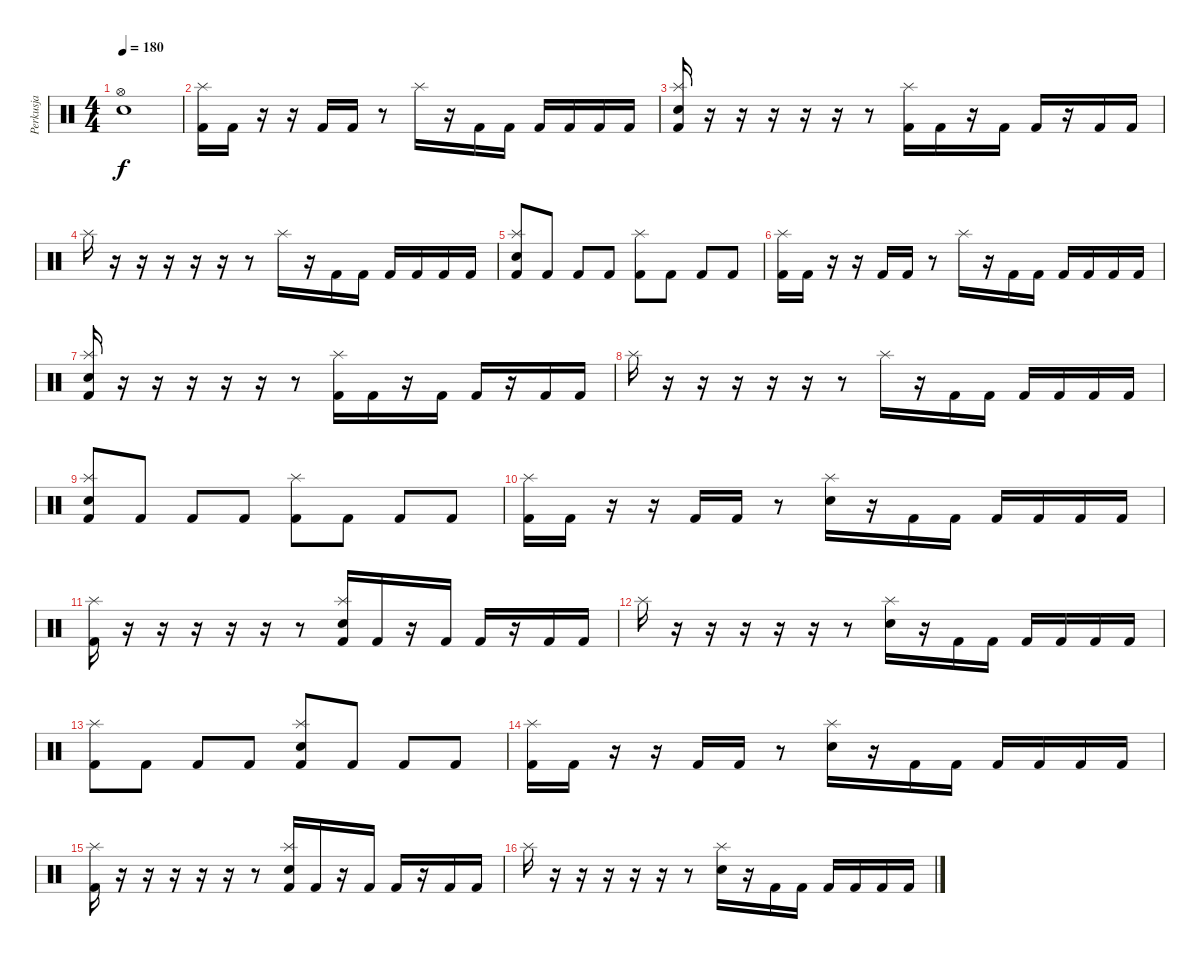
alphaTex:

\track ("Perkusja" "Perkusja") {instrument percussion}
\staff {score}
\articulation defaults
\ts (4 4)
\tempo 180
\clef neutral
\ks c
("Hi-Hat (open)" "Electric Snare (hit)").1{dy f} |
("Splash (hit)" "Kick (hit) 2").16 "Kick (hit) 2".16 r.16 r.16 "Kick (hit) 2".16 "Kick (hit) 2".16 r.8 "Splash (hit)".16 r.16 "Kick (hit) 2".16 "Kick (hit) 2".16 "Kick (hit) 2".16 "Kick (hit) 2".16 "Kick (hit) 2".16 "Kick (hit) 2".16 |
("Splash (hit)" "Electric Snare (hit)" "Kick (hit) 2").16 r.16 r.16 r.16 r.16 r.16 r.8 ("Splash (hit)" "Kick (hit) 2").16 "Kick (hit) 2".16 r.16 "Kick (hit) 2".16 "Kick (hit) 2".16 r.16 "Kick (hit) 2".16 "Kick (hit) 2".16 |
"Splash (hit)".16 r.16 r.16 r.16 r.16 r.16 r.8 "Splash (hit)".16 r.16 "Kick (hit) 2".16 "Kick (hit) 2".16 "Kick (hit) 2".16 "Kick (hit) 2".16 "Kick (hit) 2".16 "Kick (hit) 2".16 |
("Splash (hit)" "Electric Snare (hit)" "Kick (hit) 2").8 "Kick (hit) 2".8 "Kick (hit) 2".8 "Kick (hit) 2".8 ("Splash (hit)" "Kick (hit) 2").8 "Kick (hit) 2".8 "Kick (hit) 2".8 "Kick (hit) 2".8 |
("Splash (hit)" "Kick (hit) 2").16 "Kick (hit) 2".16 r.16 r.16 "Kick (hit) 2".16 "Kick (hit) 2".16 r.8 "Splash (hit)".16 r.16 "Kick (hit) 2".16 "Kick (hit) 2".16 "Kick (hit) 2".16 "Kick (hit) 2".16 "Kick (hit) 2".16 "Kick (hit) 2".16 |
("Splash (hit)" "Electric Snare (hit)" "Kick (hit) 2").16 r.16 r.16 r.16 r.16 r.16 r.8 ("Splash (hit)" "Kick (hit) 2").16 "Kick (hit) 2".16 r.16 "Kick (hit) 2".16 "Kick (hit) 2".16 r.16 "Kick (hit) 2".16 "Kick (hit) 2".16 |
"Splash (hit)".16 r.16 r.16 r.16 r.16 r.16 r.8 "Splash (hit)".16 r.16 "Kick (hit) 2".16 "Kick (hit) 2".16 "Kick (hit) 2".16 "Kick (hit) 2".16 "Kick (hit) 2".16 "Kick (hit) 2".16 |
("Splash (hit)" "Electric Snare (hit)" "Kick (hit) 2").8 "Kick (hit) 2".8 "Kick (hit) 2".8 "Kick (hit) 2".8 ("Splash (hit)" "Kick (hit) 2").8 "Kick (hit) 2".8 "Kick (hit) 2".8 "Kick (hit) 2".8 |
("Splash (hit)" "Kick (hit) 2").16 "Kick (hit) 2".16 r.16 r.16 "Kick (hit) 2".16 "Kick (hit) 2".16 r.8 ("Splash (hit)" "Electric Snare (hit)").16 r.16 "Kick (hit) 2".16 "Kick (hit) 2".16 "Kick (hit) 2".16 "Kick (hit) 2".16 "Kick (hit) 2".16 "Kick (hit) 2".16 |
("Splash (hit)" "Kick (hit) 2").16 r.16 r.16 r.16 r.16 r.16 r.8 ("Splash (hit)" "Electric Snare (hit)" "Kick (hit) 2").16 "Kick (hit) 2".16 r.16 "Kick (hit) 2".16 "Kick (hit) 2".16 r.16 "Kick (hit) 2".16 "Kick (hit) 2".16 |
"Splash (hit)".16 r.16 r.16 r.16 r.16 r.16 r.8 ("Splash (hit)" "Electric Snare (hit)").16 r.16 "Kick (hit) 2".16 "Kick (hit) 2".16 "Kick (hit) 2".16 "Kick (hit) 2".16 "Kick (hit) 2".16 "Kick (hit) 2".16 |
("Splash (hit)" "Kick (hit) 2").8 "Kick (hit) 2".8 "Kick (hit) 2".8 "Kick (hit) 2".8 ("Splash (hit)" "Electric Snare (hit)" "Kick (hit) 2").8 "Kick (hit) 2".8 "Kick (hit) 2".8 "Kick (hit) 2".8 |
("Splash (hit)" "Kick (hit) 2").16 "Kick (hit) 2".16 r.16 r.16 "Kick (hit) 2".16 "Kick (hit) 2".16 r.8 ("Splash (hit)" "Electric Snare (hit)").16 r.16 "Kick (hit) 2".16 "Kick (hit) 2".16 "Kick (hit) 2".16 "Kick (hit) 2".16 "Kick (hit) 2".16 "Kick (hit) 2".16 |
("Splash (hit)" "Kick (hit) 2").16 r.16 r.16 r.16 r.16 r.16 r.8 ("Splash (hit)" "Electric Snare (hit)" "Kick (hit) 2").16 "Kick (hit) 2".16 r.16 "Kick (hit) 2".16 "Kick (hit) 2".16 r.16 "Kick (hit) 2".16 "Kick (hit) 2".16 |
"Splash (hit)".16 r.16 r.16 r.16 r.16 r.16 r.8 ("Splash (hit)" "Electric Snare (hit)").16 r.16 "Kick (hit) 2".16 "Kick (hit) 2".16 "Kick (hit) 2".16 "Kick (hit) 2".16 "Kick (hit) 2".16 "Kick (hit) 2".16
